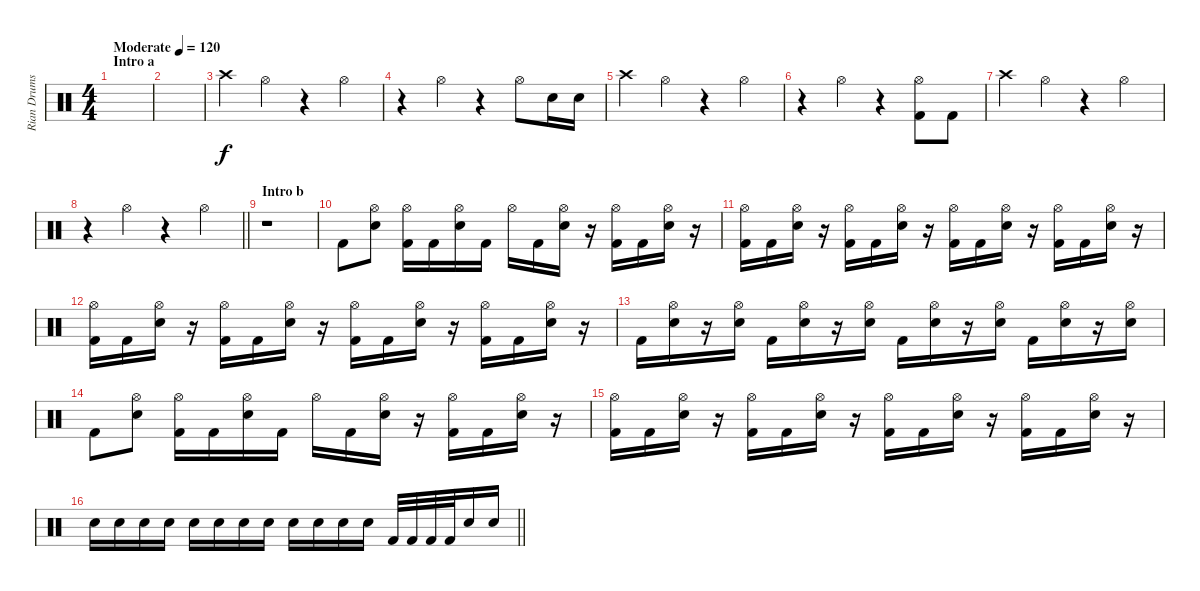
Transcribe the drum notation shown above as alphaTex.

\track ("Rian Drums" "Rian Drums") {instrument percussion}
\staff {score}
\articulation defaults
\ts (4 4)
\section ("" "Intro a")
\tempo (120 "Moderate")
\clef neutral
\ks c
|
|
"Crash high (hit)".4 "Hi-Hat (open)".4 r.4 "Hi-Hat (open)".4 |
r.4 "Hi-Hat (open)".4 r.4 "Hi-Hat (open)".8 "Electric Snare (hit)".16 "Electric Snare (hit)".16 |
"Crash high (hit)".4 "Hi-Hat (open)".4 r.4 "Hi-Hat (open)".4 |
r.4 "Hi-Hat (open)".4 r.4 ("Hi-Hat (open)" "Kick (hit) 2").8 "Kick (hit) 2".8 |
"Crash high (hit)".4 "Hi-Hat (open)".4 r.4 "Hi-Hat (open)".4 |
\barLineRight lightlight
r.4 "Hi-Hat (open)".4 r.4 "Hi-Hat (open)".4 |
\section ("" "Intro b")
r.1 |
"Kick (hit) 2".8 ("Hi-Hat (open)" "Electric Snare (hit)").8 ("Hi-Hat (open)" "Kick (hit) 2").16 "Kick (hit) 2".16 ("Hi-Hat (open)" "Electric Snare (hit)").16 "Kick (hit) 2".16 "Hi-Hat (open)".16 "Kick (hit) 2".16 ("Hi-Hat (open)" "Electric Snare (hit)").16 r.16 ("Hi-Hat (open)" "Kick (hit) 2").16 "Kick (hit) 2".16 ("Hi-Hat (open)" "Electric Snare (hit)").16 r.16 |
("Hi-Hat (open)" "Kick (hit) 2").16 "Kick (hit) 2".16 ("Hi-Hat (open)" "Electric Snare (hit)").16 r.16 ("Hi-Hat (open)" "Kick (hit) 2").16 "Kick (hit) 2".16 ("Hi-Hat (open)" "Electric Snare (hit)").16 r.16 ("Hi-Hat (open)" "Kick (hit) 2").16 "Kick (hit) 2".16 ("Hi-Hat (open)" "Electric Snare (hit)").16 r.16 ("Hi-Hat (open)" "Kick (hit) 2").16 "Kick (hit) 2".16 ("Hi-Hat (open)" "Electric Snare (hit)").16 r.16 |
("Hi-Hat (open)" "Kick (hit) 2").16 "Kick (hit) 2".16 ("Hi-Hat (open)" "Electric Snare (hit)").16 r.16 ("Hi-Hat (open)" "Kick (hit) 2").16 "Kick (hit) 2".16 ("Hi-Hat (open)" "Electric Snare (hit)").16 r.16 ("Hi-Hat (open)" "Kick (hit) 2").16 "Kick (hit) 2".16 ("Hi-Hat (open)" "Electric Snare (hit)").16 r.16 ("Hi-Hat (open)" "Kick (hit) 2").16 "Kick (hit) 2".16 ("Hi-Hat (open)" "Electric Snare (hit)").16 r.16 |
"Kick (hit) 2".16 ("Hi-Hat (open)" "Electric Snare (hit)").16 r.16 ("Hi-Hat (open)" "Electric Snare (hit)").16 "Kick (hit) 2".16 ("Hi-Hat (open)" "Electric Snare (hit)").16 r.16 ("Hi-Hat (open)" "Electric Snare (hit)").16 "Kick (hit) 2".16 ("Hi-Hat (open)" "Electric Snare (hit)").16 r.16 ("Hi-Hat (open)" "Electric Snare (hit)").16 "Kick (hit) 2".16 ("Hi-Hat (open)" "Electric Snare (hit)").16 r.16 ("Hi-Hat (open)" "Electric Snare (hit)").16 |
"Kick (hit) 2".8 ("Hi-Hat (open)" "Electric Snare (hit)").8 ("Hi-Hat (open)" "Kick (hit) 2").16 "Kick (hit) 2".16 ("Hi-Hat (open)" "Electric Snare (hit)").16 "Kick (hit) 2".16 "Hi-Hat (open)".16 "Kick (hit) 2".16 ("Hi-Hat (open)" "Electric Snare (hit)").16 r.16 ("Hi-Hat (open)" "Kick (hit) 2").16 "Kick (hit) 2".16 ("Hi-Hat (open)" "Electric Snare (hit)").16 r.16 |
("Hi-Hat (open)" "Kick (hit) 2").16 "Kick (hit) 2".16 ("Hi-Hat (open)" "Electric Snare (hit)").16 r.16 ("Hi-Hat (open)" "Kick (hit) 2").16 "Kick (hit) 2".16 ("Hi-Hat (open)" "Electric Snare (hit)").16 r.16 ("Hi-Hat (open)" "Kick (hit) 2").16 "Kick (hit) 2".16 ("Hi-Hat (open)" "Electric Snare (hit)").16 r.16 ("Hi-Hat (open)" "Kick (hit) 2").16 "Kick (hit) 2".16 ("Hi-Hat (open)" "Electric Snare (hit)").16 r.16 |
\barLineRight lightlight "Electric Snare (hit)".16 "Electric Snare (hit)".16 "Electric Snare (hit)".16 "Electric Snare (hit)".16 "Electric Snare (hit)".16 "Electric Snare (hit)".16 "Electric Snare (hit)".16 "Electric Snare (hit)".16 "Electric Snare (hit)".16 "Electric Snare (hit)".16 "Electric Snare (hit)".16 "Electric Snare (hit)".16 "Kick (hit) 2".32 "Kick (hit) 2".32 "Kick (hit) 2".32 "Kick (hit) 2".32 "Electric Snare (hit)".16 "Electric Snare (hit)".16
